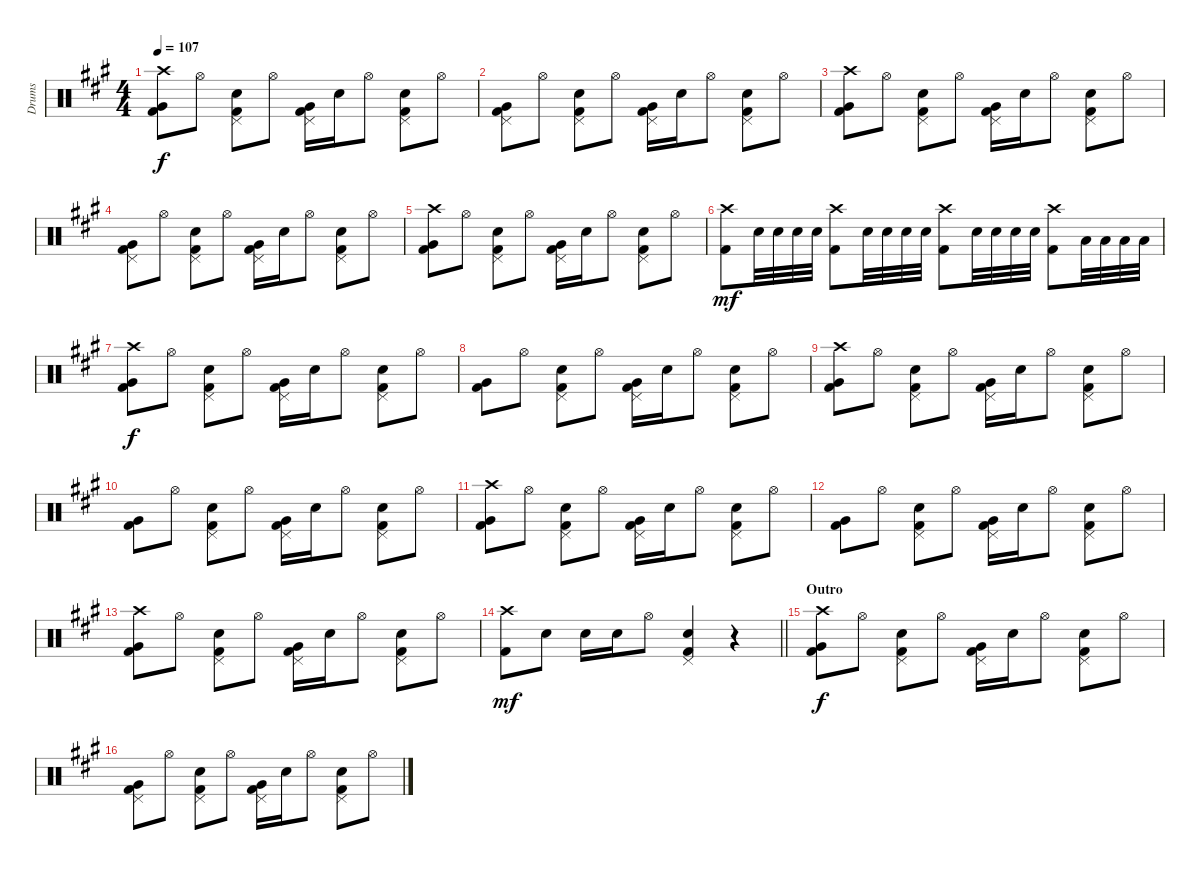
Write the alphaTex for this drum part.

\track ("Drums" "Drums") {instrument percussion}
\staff {score}
\articulation defaults
\ts (4 4)
\tempo 107
\clef neutral
\ks f#minor
("Crash high (hit)" "Very Low Tom (hit)" "Kick (hit) 2").8{dy f} "Hi-Hat (open)".8 ("Electric Snare (hit)" "Pedal Hi-Hat (hit)" "Kick (hit) 2").8 "Hi-Hat (open)".8 ("Very Low Tom (hit)" "Pedal Hi-Hat (hit)" "Kick (hit) 2").16 "Electric Snare (hit)".16 "Hi-Hat (open)".8 ("Electric Snare (hit)" "Pedal Hi-Hat (hit)" "Kick (hit) 2").8 "Hi-Hat (open)".8 |
("Very Low Tom (hit)" "Pedal Hi-Hat (hit)" "Kick (hit) 2").8 "Hi-Hat (open)".8 ("Electric Snare (hit)" "Pedal Hi-Hat (hit)" "Kick (hit) 2").8 "Hi-Hat (open)".8 ("Very Low Tom (hit)" "Pedal Hi-Hat (hit)" "Kick (hit) 2").16 "Electric Snare (hit)".16 "Hi-Hat (open)".8 ("Electric Snare (hit)" "Pedal Hi-Hat (hit)" "Kick (hit) 2").8 "Hi-Hat (open)".8 |
("Crash high (hit)" "Very Low Tom (hit)" "Kick (hit) 2").8 "Hi-Hat (open)".8 ("Electric Snare (hit)" "Pedal Hi-Hat (hit)" "Kick (hit) 2").8 "Hi-Hat (open)".8 ("Very Low Tom (hit)" "Pedal Hi-Hat (hit)" "Kick (hit) 2").16 "Electric Snare (hit)".16 "Hi-Hat (open)".8 ("Electric Snare (hit)" "Pedal Hi-Hat (hit)" "Kick (hit) 2").8 "Hi-Hat (open)".8 |
("Very Low Tom (hit)" "Pedal Hi-Hat (hit)" "Kick (hit) 2").8 "Hi-Hat (open)".8 ("Electric Snare (hit)" "Pedal Hi-Hat (hit)" "Kick (hit) 2").8 "Hi-Hat (open)".8 ("Very Low Tom (hit)" "Pedal Hi-Hat (hit)" "Kick (hit) 2").16 "Electric Snare (hit)".16 "Hi-Hat (open)".8 ("Electric Snare (hit)" "Pedal Hi-Hat (hit)" "Kick (hit) 2").8 "Hi-Hat (open)".8 |
("Crash high (hit)" "Very Low Tom (hit)" "Kick (hit) 2").8 "Hi-Hat (open)".8 ("Electric Snare (hit)" "Pedal Hi-Hat (hit)" "Kick (hit) 2").8 "Hi-Hat (open)".8 ("Very Low Tom (hit)" "Pedal Hi-Hat (hit)" "Kick (hit) 2").16 "Electric Snare (hit)".16 "Hi-Hat (open)".8 ("Electric Snare (hit)" "Pedal Hi-Hat (hit)" "Kick (hit) 2").8 "Hi-Hat (open)".8 |
("Crash high (hit)" "Kick (hit) 2").8{dy mf} "Electric Snare (hit)".32 "Electric Snare (hit)".32 "Electric Snare (hit)".32 "Electric Snare (hit)".32 ("Crash high (hit)" "Kick (hit) 2").8 "Electric Snare (hit)".32 "Electric Snare (hit)".32 "Electric Snare (hit)".32 "Electric Snare (hit)".32 ("Crash high (hit)" "Kick (hit) 2").8 "Electric Snare (hit)".32 "Electric Snare (hit)".32 "Electric Snare (hit)".32 "Electric Snare (hit)".32 ("Crash high (hit)" "Kick (hit) 2").8 "Low Tom (hit)".32 "Low Tom (hit)".32 "Low Tom (hit)".32 "Low Tom (hit)".32 |
("Crash high (hit)" "Very Low Tom (hit)" "Kick (hit) 2").8{dy f} "Hi-Hat (open)".8 ("Electric Snare (hit)" "Pedal Hi-Hat (hit)" "Kick (hit) 2").8 "Hi-Hat (open)".8 ("Very Low Tom (hit)" "Pedal Hi-Hat (hit)" "Kick (hit) 2").16 "Electric Snare (hit)".16 "Hi-Hat (open)".8 ("Electric Snare (hit)" "Pedal Hi-Hat (hit)" "Kick (hit) 2").8 "Hi-Hat (open)".8 |
("Very Low Tom (hit)" "Kick (hit) 2").8 "Hi-Hat (open)".8 ("Electric Snare (hit)" "Pedal Hi-Hat (hit)" "Kick (hit) 2").8 "Hi-Hat (open)".8 ("Very Low Tom (hit)" "Pedal Hi-Hat (hit)" "Kick (hit) 2").16 "Electric Snare (hit)".16 "Hi-Hat (open)".8 ("Electric Snare (hit)" "Pedal Hi-Hat (hit)" "Kick (hit) 2").8 "Hi-Hat (open)".8 |
("Crash high (hit)" "Very Low Tom (hit)" "Kick (hit) 2").8 "Hi-Hat (open)".8 ("Electric Snare (hit)" "Pedal Hi-Hat (hit)" "Kick (hit) 2").8 "Hi-Hat (open)".8 ("Very Low Tom (hit)" "Pedal Hi-Hat (hit)" "Kick (hit) 2").16 "Electric Snare (hit)".16 "Hi-Hat (open)".8 ("Electric Snare (hit)" "Pedal Hi-Hat (hit)" "Kick (hit) 2").8 "Hi-Hat (open)".8 |
("Very Low Tom (hit)" "Kick (hit) 2").8 "Hi-Hat (open)".8 ("Electric Snare (hit)" "Pedal Hi-Hat (hit)" "Kick (hit) 2").8 "Hi-Hat (open)".8 ("Very Low Tom (hit)" "Pedal Hi-Hat (hit)" "Kick (hit) 2").16 "Electric Snare (hit)".16 "Hi-Hat (open)".8 ("Electric Snare (hit)" "Pedal Hi-Hat (hit)" "Kick (hit) 2").8 "Hi-Hat (open)".8 |
("Crash high (hit)" "Very Low Tom (hit)" "Kick (hit) 2").8 "Hi-Hat (open)".8 ("Electric Snare (hit)" "Pedal Hi-Hat (hit)" "Kick (hit) 2").8 "Hi-Hat (open)".8 ("Very Low Tom (hit)" "Pedal Hi-Hat (hit)" "Kick (hit) 2").16 "Electric Snare (hit)".16 "Hi-Hat (open)".8 ("Electric Snare (hit)" "Pedal Hi-Hat (hit)" "Kick (hit) 2").8 "Hi-Hat (open)".8 |
("Very Low Tom (hit)" "Kick (hit) 2").8 "Hi-Hat (open)".8 ("Electric Snare (hit)" "Pedal Hi-Hat (hit)" "Kick (hit) 2").8 "Hi-Hat (open)".8 ("Very Low Tom (hit)" "Pedal Hi-Hat (hit)" "Kick (hit) 2").16 "Electric Snare (hit)".16 "Hi-Hat (open)".8 ("Electric Snare (hit)" "Pedal Hi-Hat (hit)" "Kick (hit) 2").8 "Hi-Hat (open)".8 |
("Crash high (hit)" "Very Low Tom (hit)" "Kick (hit) 2").8 "Hi-Hat (open)".8 ("Electric Snare (hit)" "Pedal Hi-Hat (hit)" "Kick (hit) 2").8 "Hi-Hat (open)".8 ("Very Low Tom (hit)" "Pedal Hi-Hat (hit)" "Kick (hit) 2").16 "Electric Snare (hit)".16 "Hi-Hat (open)".8 ("Electric Snare (hit)" "Pedal Hi-Hat (hit)" "Kick (hit) 2").8 "Hi-Hat (open)".8 |
\barLineRight lightlight
("Crash high (hit)" "Kick (hit) 2").8{dy mf} "Electric Snare (hit)".8 "Electric Snare (hit)".16 "Electric Snare (hit)".16 "Hi-Hat (open)".8 ("Electric Snare (hit)" "Pedal Hi-Hat (hit)" "Kick (hit) 2").4 r.4 |
\section ("" "Outro")
("Crash high (hit)" "Very Low Tom (hit)" "Kick (hit) 2").8{dy f} "Hi-Hat (open)".8 ("Electric Snare (hit)" "Pedal Hi-Hat (hit)" "Kick (hit) 2").8 "Hi-Hat (open)".8 ("Very Low Tom (hit)" "Pedal Hi-Hat (hit)" "Kick (hit) 2").16 "Electric Snare (hit)".16 "Hi-Hat (open)".8 ("Electric Snare (hit)" "Pedal Hi-Hat (hit)" "Kick (hit) 2").8 "Hi-Hat (open)".8 |
("Very Low Tom (hit)" "Pedal Hi-Hat (hit)" "Kick (hit) 2").8 "Hi-Hat (open)".8 ("Electric Snare (hit)" "Pedal Hi-Hat (hit)" "Kick (hit) 2").8 "Hi-Hat (open)".8 ("Very Low Tom (hit)" "Pedal Hi-Hat (hit)" "Kick (hit) 2").16 "Electric Snare (hit)".16 "Hi-Hat (open)".8 ("Electric Snare (hit)" "Pedal Hi-Hat (hit)" "Kick (hit) 2").8 "Hi-Hat (open)".8
